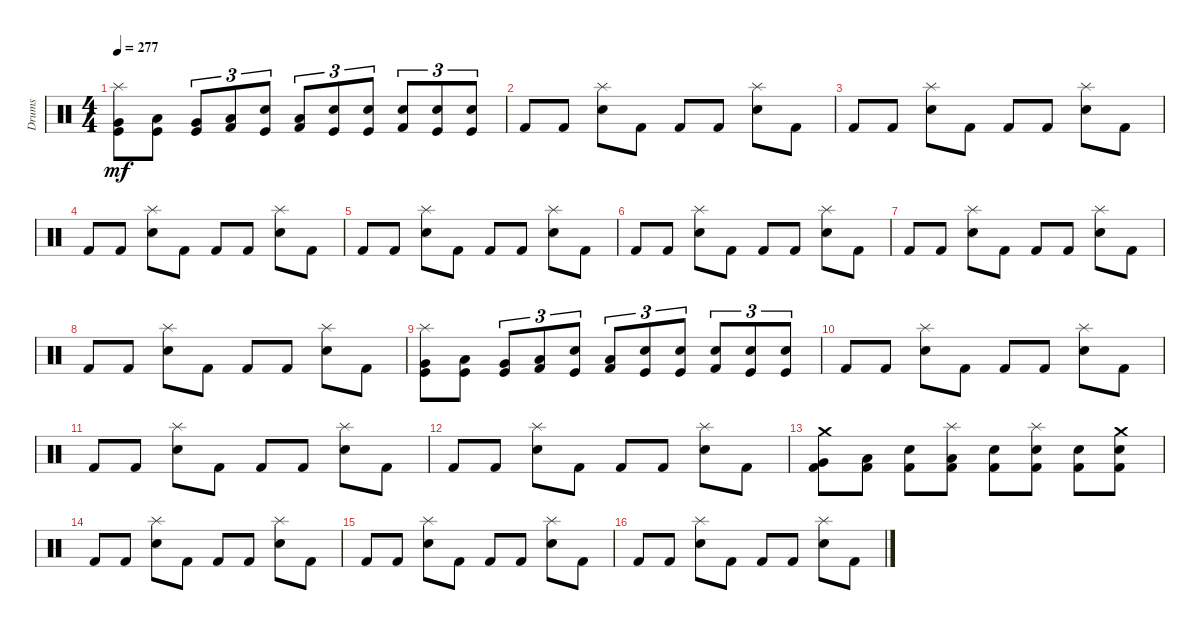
\track ("Drums" "Drums") {instrument percussion}
\staff {score}
\articulation defaults
\ts (4 4)
\tempo 277
\clef neutral
\ks c
("Splash (hit)" "Very Low Tom (hit)" "Kick (hit)").8{dy mf} ("Kick (hit)" "Low Floor Tom (hit)").8 ("Kick (hit)" "Very Low Tom (hit)").8{tu (3 2)} ("Kick (hit) 2" "Low Floor Tom (hit)").8{tu (3 2)} ("Kick (hit)" "Electric Snare (hit)").8{tu (3 2)} ("Low Floor Tom (hit)" "Kick (hit) 2").8{tu (3 2)} ("Kick (hit)" "Electric Snare (hit)").8{tu (3 2)} ("Snare (hit) 2" "Kick (hit)").8{tu (3 2)} ("Kick (hit) 2" "Electric Snare (hit)").8{tu (3 2)} ("Snare (hit) 2" "Kick (hit)").8{tu (3 2)} ("Kick (hit)" "Electric Snare (hit)").8{tu (3 2)} |
"Kick (hit) 2".8 "Kick (hit) 2".8 ("Splash (hit)" "Electric Snare (hit)").8 "Kick (hit) 2".8 "Kick (hit) 2".8 "Kick (hit) 2".8 ("Splash (hit)" "Electric Snare (hit)").8 "Kick (hit) 2".8 |
"Kick (hit) 2".8 "Kick (hit) 2".8 ("Splash (hit)" "Electric Snare (hit)").8 "Kick (hit) 2".8 "Kick (hit) 2".8 "Kick (hit) 2".8 ("Electric Snare (hit)" "Splash (hit)").8 "Kick (hit) 2".8 |
"Kick (hit) 2".8 "Kick (hit) 2".8 ("Splash (hit)" "Electric Snare (hit)").8 "Kick (hit) 2".8 "Kick (hit) 2".8 "Kick (hit) 2".8 ("Electric Snare (hit)" "Splash (hit)").8 "Kick (hit) 2".8 |
"Kick (hit) 2".8 "Kick (hit) 2".8 ("Splash (hit)" "Electric Snare (hit)").8 "Kick (hit) 2".8 "Kick (hit) 2".8 "Kick (hit) 2".8 ("Splash (hit)" "Electric Snare (hit)").8 "Kick (hit) 2".8 |
"Kick (hit) 2".8 "Kick (hit) 2".8 ("Electric Snare (hit)" "Splash (hit)").8 "Kick (hit) 2".8 "Kick (hit) 2".8 "Kick (hit) 2".8 ("Splash (hit)" "Electric Snare (hit)").8 "Kick (hit) 2".8 |
"Kick (hit) 2".8 "Kick (hit) 2".8 ("Splash (hit)" "Electric Snare (hit)").8 "Kick (hit) 2".8 "Kick (hit) 2".8 "Kick (hit) 2".8 ("Electric Snare (hit)" "Splash (hit)").8 "Kick (hit) 2".8 |
"Kick (hit) 2".8 "Kick (hit) 2".8 ("Splash (hit)" "Electric Snare (hit)").8 "Kick (hit) 2".8 "Kick (hit) 2".8 "Kick (hit) 2".8 ("Splash (hit)" "Electric Snare (hit)").8 "Kick (hit) 2".8 |
("Splash (hit)" "Very Low Tom (hit)" "Kick (hit)").8 ("Kick (hit)" "Low Floor Tom (hit)").8 ("Very Low Tom (hit)" "Kick (hit)").8{tu (3 2)} ("Low Floor Tom (hit)" "Kick (hit) 2").8{tu (3 2)} ("Electric Snare (hit)" "Kick (hit)").8{tu (3 2)} ("Kick (hit) 2" "Low Floor Tom (hit)").8{tu (3 2)} ("Kick (hit)" "Electric Snare (hit)").8{tu (3 2)} ("Snare (hit) 2" "Kick (hit)").8{tu (3 2)} ("Electric Snare (hit)" "Kick (hit) 2").8{tu (3 2)} ("Kick (hit)" "Snare (hit) 2").8{tu (3 2)} ("Electric Snare (hit)" "Kick (hit)").8{tu (3 2)} |
"Kick (hit) 2".8 "Kick (hit) 2".8 ("Splash (hit)" "Electric Snare (hit)").8 "Kick (hit) 2".8 "Kick (hit) 2".8 "Kick (hit) 2".8 ("Electric Snare (hit)" "Splash (hit)").8 "Kick (hit) 2".8 |
"Kick (hit) 2".8 "Kick (hit) 2".8 ("Splash (hit)" "Electric Snare (hit)").8 "Kick (hit) 2".8 "Kick (hit) 2".8 "Kick (hit) 2".8 ("Splash (hit)" "Electric Snare (hit)").8 "Kick (hit) 2".8 |
"Kick (hit) 2".8 "Kick (hit) 2".8 ("Electric Snare (hit)" "Splash (hit)").8 "Kick (hit) 2".8 "Kick (hit) 2".8 "Kick (hit) 2".8 ("Splash (hit)" "Electric Snare (hit)").8 "Kick (hit) 2".8 |
("Kick (hit) 2" "Very Low Tom (hit)" "Crash medium (hit)").8 ("Low Floor Tom (hit)" "Kick (hit) 2").8 ("Kick (hit) 2" "Electric Snare (hit)").8 ("Splash (hit)" "Kick (hit) 2" "Low Floor Tom (hit)").8 ("Kick (hit) 2" "Electric Snare (hit)").8 ("Splash (hit)" "Kick (hit) 2" "Snare (hit) 2").8 ("Kick (hit) 2" "Electric Snare (hit)").8 ("Kick (hit) 2" "Crash medium (hit)" "Snare (hit) 2").8 |
"Kick (hit) 2".8 "Kick (hit) 2".8 ("Splash (hit)" "Electric Snare (hit)").8 "Kick (hit) 2".8 "Kick (hit) 2".8 "Kick (hit) 2".8 ("Electric Snare (hit)" "Splash (hit)").8 "Kick (hit) 2".8 |
"Kick (hit) 2".8 "Kick (hit) 2".8 ("Electric Snare (hit)" "Splash (hit)").8 "Kick (hit) 2".8 "Kick (hit) 2".8 "Kick (hit) 2".8 ("Electric Snare (hit)" "Splash (hit)").8 "Kick (hit) 2".8 |
"Kick (hit) 2".8 "Kick (hit) 2".8 ("Electric Snare (hit)" "Splash (hit)").8 "Kick (hit) 2".8 "Kick (hit) 2".8 "Kick (hit) 2".8 ("Electric Snare (hit)" "Splash (hit)").8 "Kick (hit) 2".8
